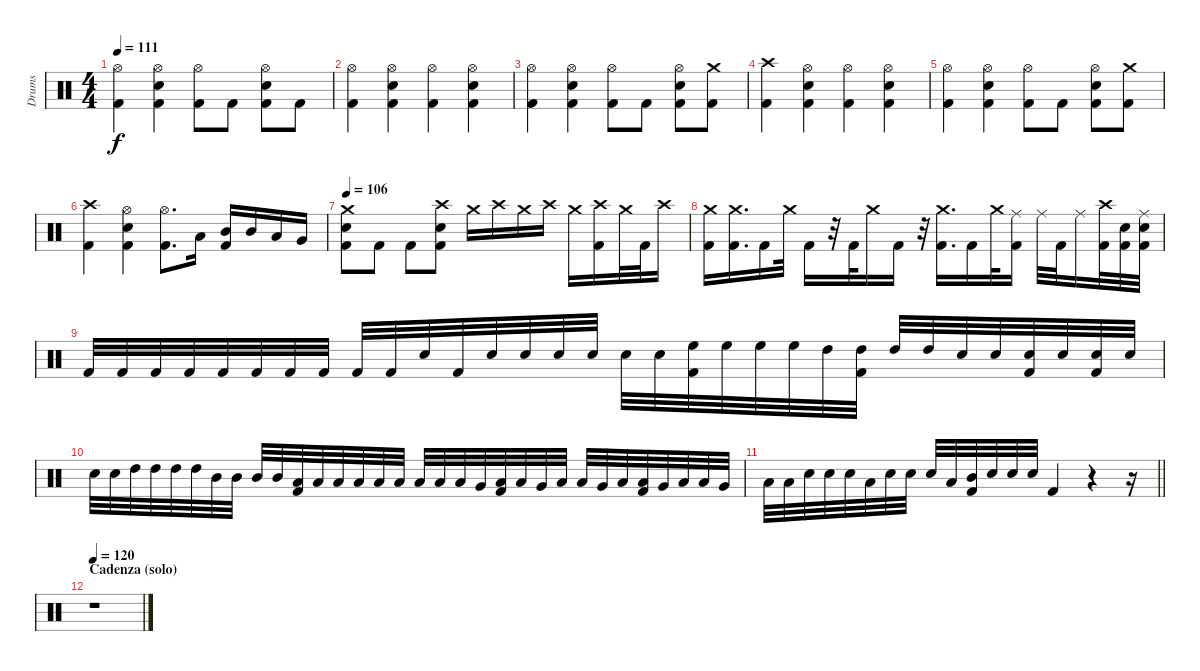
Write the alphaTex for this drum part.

\track ("Drums" "Drums") {instrument percussion}
\staff {score}
\articulation defaults
\ts (4 4)
\tempo 111
\clef neutral
\ks c
("Hi-Hat (open)" "Kick (hit) 2").4{dy f} ("Snare (hit) 2" "Hi-Hat (open)" "Kick (hit) 2").4 ("Hi-Hat (open)" "Kick (hit) 2").8 "Kick (hit) 2".8 ("Snare (hit) 2" "Hi-Hat (open)" "Kick (hit) 2").8 "Kick (hit) 2".8 |
("Kick (hit) 2" "Hi-Hat (open)").4 ("Hi-Hat (open)" "Kick (hit) 2" "Snare (hit) 2").4 ("Hi-Hat (open)" "Kick (hit) 2").4 ("Hi-Hat (open)" "Kick (hit) 2" "Snare (hit) 2").4 |
("Hi-Hat (open)" "Kick (hit) 2").4 ("Hi-Hat (open)" "Kick (hit) 2" "Snare (hit) 2").4 ("Hi-Hat (open)" "Kick (hit) 2").8 "Kick (hit) 2".8 ("Kick (hit) 2" "Hi-Hat (open)" "Snare (hit) 2").8 ("Kick (hit) 2" "Crash medium (hit)").8 |
("Kick (hit) 2" "Crash high (hit)").4 ("Hi-Hat (open)" "Kick (hit) 2" "Snare (hit) 2").4 ("Hi-Hat (open)" "Kick (hit) 2").4 ("Snare (hit) 2" "Kick (hit) 2" "Hi-Hat (open)").4 |
("Kick (hit) 2" "Hi-Hat (open)").4 ("Snare (hit) 2" "Kick (hit) 2" "Hi-Hat (open)").4 ("Kick (hit) 2" "Hi-Hat (open)").8 "Kick (hit) 2".8 ("Kick (hit) 2" "Hi-Hat (open)" "Snare (hit) 2").8 ("Crash medium (hit)" "Kick (hit) 2").8 |
("Kick (hit) 2" "Crash high (hit)").4 ("Snare (hit) 2" "Hi-Hat (open)" "Kick (hit) 2").4 ("Hi-Hat (open)" "Kick (hit) 2").8{d} "Low Tom (hit)".16 ("Kick (hit) 2" "Mid Tom (hit)").16 "Mid Tom (hit)".16 "Low Tom (hit)".16 "Very Low Tom (hit)".16 |
\tempo 106
("Snare (hit) 2" "Crash medium (hit)" "Kick (hit) 2").8 "Kick (hit) 2".8 "Kick (hit) 2".8 ("Snare (hit) 2" "Kick (hit) 2" "Crash high (hit)").8 "Crash medium (hit)".16 "Crash high (hit)".16 "Crash medium (hit)".16 "Crash high (hit)".16 "Crash medium (hit)".16 ("Crash high (hit)" "Kick (hit) 2").16 "Crash medium (hit)".32 "Kick (hit) 2".32 "Crash high (hit)".16 |
("Crash medium (hit)" "Kick (hit) 2").16 ("Kick (hit) 2" "Crash medium (hit)").16{d} "Kick (hit) 2".16 "Crash medium (hit)".32 "Kick (hit) 2".16 r.32 "Kick (hit) 2".32 "Crash medium (hit)".16 "Kick (hit) 2".16 r.32 ("Kick (hit) 2" "Crash medium (hit)").16{d} "Kick (hit) 2".16 "Crash medium (hit)".32 ("Ride (middle)" "Kick (hit) 2").16 "Ride (middle)".32 "Kick (hit) 2".32 "Ride (middle)".16 ("Kick (hit) 2" "Crash high (hit)").32 ("Snare (hit) 2" "Kick (hit) 2").32 ("Ride (middle)" "Kick (hit) 2" "Snare (hit) 2").32 |
"Kick (hit) 2".32 "Kick (hit) 2".32 "Kick (hit) 2".32 "Kick (hit) 2".32 "Kick (hit) 2".32 "Kick (hit) 2".32 "Kick (hit) 2".32 "Kick (hit) 2".32 "Kick (hit) 2".32 "Kick (hit) 2".32 "Snare (hit) 2".32 "Kick (hit) 2".32 "Snare (hit) 2".32 "Snare (hit) 2".32 "Snare (hit) 2".32 "Snare (hit) 2".32 "Snare (hit) 2".32 "Snare (hit) 2".32 ("High Floor Tom (hit)" "Kick (hit) 2").32 "High Floor Tom (hit)".32 "High Floor Tom (hit)".32 "High Floor Tom (hit)".32 "High Tom (hit)".32 ("High Tom (hit)" "Kick (hit) 2").32 "High Tom (hit)".32 "High Tom (hit)".32 "Snare (hit) 2".32 "Snare (hit) 2".32 ("Snare (hit) 2" "Kick (hit) 2").32 "Snare (hit) 2".32 ("Snare (hit) 2" "Kick (hit) 2").32 "Snare (hit) 2".32 |
"Snare (hit) 2".32 "Snare (hit) 2".32 "High Tom (hit)".32 "High Tom (hit)".32 "High Tom (hit)".32 "High Tom (hit)".32 "Mid Tom (hit)".32 "Mid Tom (hit)".32 "Mid Tom (hit)".32 "Mid Tom (hit)".32 ("Low Tom (hit)" "Kick (hit) 2").32 "Low Tom (hit)".32 "Low Tom (hit)".32 "Low Tom (hit)".32 "Low Tom (hit)".32 "Low Tom (hit)".32 "Low Tom (hit)".32 "Low Tom (hit)".32 "Low Tom (hit)".32 "Very Low Tom (hit)".32 ("Low Floor Tom (hit)" "Kick (hit) 2").32 "Low Tom (hit)".32 "Very Low Tom (hit)".32 "Low Floor Tom (hit)".32 "Low Tom (hit)".32 "Very Low Tom (hit)".32 "Low Floor Tom (hit)".32 ("Low Tom (hit)" "Kick (hit) 2").32 "Very Low Tom (hit)".32 "Low Floor Tom (hit)".32 "Low Tom (hit)".32 "Very Low Tom (hit)".32 |
\barLineRight lightlight "Low Floor Tom (hit)".32 "Low Tom (hit)".32 "Snare (hit) 2".32 "Snare (hit) 2".32 "Snare (hit) 2".32 "Low Tom (hit)".32 "Snare (hit) 2".32 "Snare (hit) 2".32 "Snare (hit) 2".32 "Low Tom (hit)".32
("Kick (hit) 2" "Mid Tom (hit)").32 "Snare (hit) 2".32 "Snare (hit) 2".32 "Snare (hit) 2".32 "Kick (hit) 2".4 r.4 r.16 |
\section ("" "Cadenza (solo)")
\tempo 120
r.1
